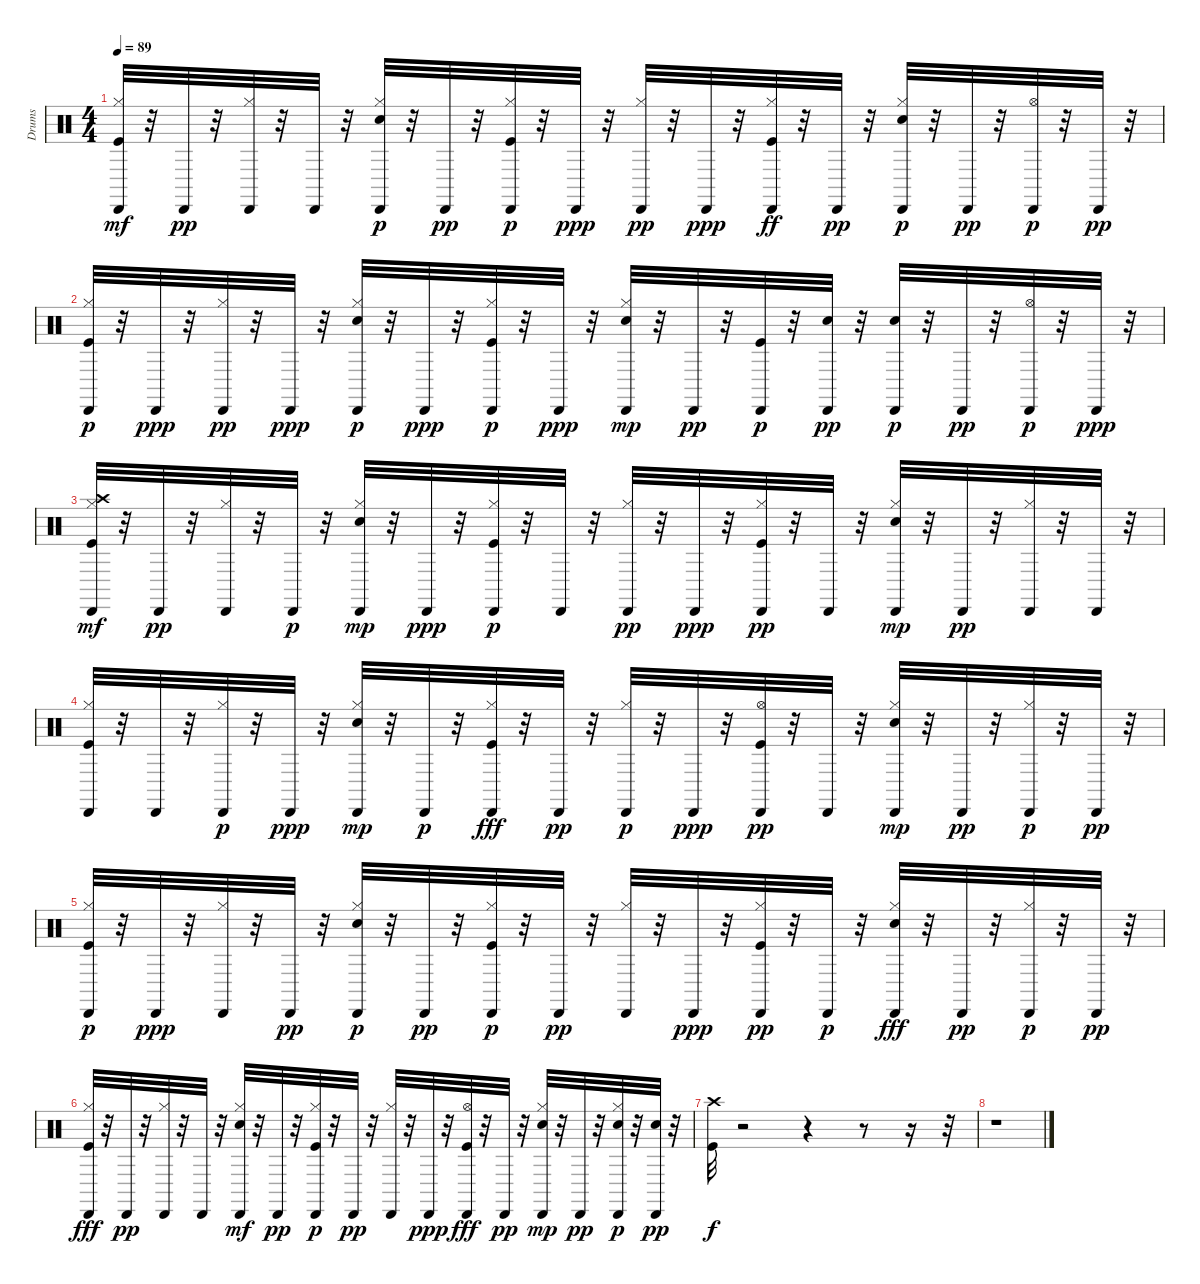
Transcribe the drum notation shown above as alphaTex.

\track ("Drums" "Drums") {instrument percussion}
\staff {score}
\articulation defaults
\ts (4 4)
\tempo 89
\clef neutral
\ks c
("Kick (hit)" "Cabasa (hit)" "Hi-Hat (closed)").32{dy mf} r.32 "Cabasa (hit)".32{dy pp} r.32 ("Hi-Hat (closed)" "Cabasa (hit)").32 r.32 "Cabasa (hit)".32 r.32 ("Electric Snare (hit)" "Hi-Hat (closed)" "Cabasa (hit)").32{dy p} r.32 "Cabasa (hit)".32{dy pp} r.32 ("Kick (hit)" "Hi-Hat (closed)" "Cabasa (hit)").32{dy p} r.32 "Cabasa (hit)".32{dy ppp} r.32 ("Hi-Hat (closed)" "Cabasa (hit)").32{dy pp} r.32 "Cabasa (hit)".32{dy ppp} r.32 ("Cabasa (hit)" "Hi-Hat (closed)" "Kick (hit)").32{dy ff} r.32 "Cabasa (hit)".32{dy pp} r.32 ("Electric Snare (hit)" "Hi-Hat (closed)" "Cabasa (hit)").32{dy p} r.32 "Cabasa (hit)".32{dy pp} r.32 ("Hi-Hat (open)" "Cabasa (hit)").32{dy p} r.32 "Cabasa (hit)".32{dy pp} r.32 |
("Kick (hit)" "Hi-Hat (closed)" "Cabasa (hit)").32{dy p} r.32 "Cabasa (hit)".32{dy ppp} r.32 ("Hi-Hat (closed)" "Cabasa (hit)").32{dy pp} r.32 "Cabasa (hit)".32{dy ppp} r.32 ("Hi-Hat (closed)" "Electric Snare (hit)" "Cabasa (hit)").32{dy p} r.32 "Cabasa (hit)".32{dy ppp} r.32 ("Kick (hit)" "Hi-Hat (closed)" "Cabasa (hit)").32{dy p} r.32 "Cabasa (hit)".32{dy ppp} r.32 ("Electric Snare (hit)" "Cabasa (hit)" "Hi-Hat (closed)").32{dy mp} r.32 "Cabasa (hit)".32{dy pp} r.32 ("Kick (hit)" "Cabasa (hit)").32{dy p} r.32 ("Electric Snare (hit)" "Cabasa (hit)").32{dy pp} r.32 ("Electric Snare (hit)" "Cabasa (hit)").32{dy p} r.32 "Cabasa (hit)".32{dy pp} r.32 ("Hi-Hat (open)" "Cabasa (hit)").32{dy p} r.32 "Cabasa (hit)".32{dy ppp} r.32 |
("Hi-Hat (closed)" "Cabasa (hit)" "Kick (hit)" "Crash high (hit)").32{dy mf} r.32 "Cabasa (hit)".32{dy pp} r.32 ("Hi-Hat (closed)" "Cabasa (hit)").32 r.32 "Cabasa (hit)".32{dy p} r.32 ("Electric Snare (hit)" "Hi-Hat (closed)" "Cabasa (hit)").32{dy mp} r.32 "Cabasa (hit)".32{dy ppp} r.32 ("Hi-Hat (closed)" "Kick (hit)" "Cabasa (hit)").32{dy p} r.32 "Cabasa (hit)".32 r.32 ("Hi-Hat (closed)" "Cabasa (hit)").32{dy pp} r.32 "Cabasa (hit)".32{dy ppp} r.32 ("Kick (hit)" "Hi-Hat (closed)" "Cabasa (hit)").32{dy pp} r.32 "Cabasa (hit)".32 r.32 ("Electric Snare (hit)" "Hi-Hat (closed)" "Cabasa (hit)").32{dy mp} r.32 "Cabasa (hit)".32{dy pp} r.32 ("Hi-Hat (closed)" "Cabasa (hit)").32 r.32 "Cabasa (hit)".32 r.32 |
("Kick (hit)" "Hi-Hat (closed)" "Cabasa (hit)").32 r.32 "Cabasa (hit)".32 r.32 ("Hi-Hat (closed)" "Cabasa (hit)").32{dy p} r.32 "Cabasa (hit)".32{dy ppp} r.32 ("Electric Snare (hit)" "Hi-Hat (closed)" "Cabasa (hit)").32{dy mp} r.32 "Cabasa (hit)".32{dy p} r.32 ("Hi-Hat (closed)" "Cabasa (hit)" "Kick (hit)").32{dy fff} r.32 "Cabasa (hit)".32{dy pp} r.32 ("Hi-Hat (closed)" "Cabasa (hit)").32{dy p} r.32 "Cabasa (hit)".32{dy ppp} r.32 ("Hi-Hat (open)" "Kick (hit)" "Cabasa (hit)").32{dy pp} r.32 "Cabasa (hit)".32 r.32 ("Hi-Hat (closed)" "Electric Snare (hit)" "Cabasa (hit)").32{dy mp} r.32 "Cabasa (hit)".32{dy pp} r.32 ("Hi-Hat (closed)" "Cabasa (hit)").32{dy p} r.32 "Cabasa (hit)".32{dy pp} r.32 |
("Hi-Hat (closed)" "Kick (hit)" "Cabasa (hit)").32{dy p} r.32 "Cabasa (hit)".32{dy ppp} r.32 ("Hi-Hat (closed)" "Cabasa (hit)").32 r.32 "Cabasa (hit)".32{dy pp} r.32 ("Electric Snare (hit)" "Hi-Hat (closed)" "Cabasa (hit)").32{dy p} r.32 "Cabasa (hit)".32{dy pp} r.32 ("Hi-Hat (closed)" "Kick (hit)" "Cabasa (hit)").32{dy p} r.32 "Cabasa (hit)".32{dy pp} r.32 ("Hi-Hat (closed)" "Cabasa (hit)").32 r.32 "Cabasa (hit)".32{dy ppp} r.32 ("Hi-Hat (closed)" "Kick (hit)" "Cabasa (hit)").32{dy pp} r.32 "Cabasa (hit)".32{dy p} r.32 ("Hi-Hat (closed)" "Cabasa (hit)" "Electric Snare (hit)").32{dy fff} r.32 "Cabasa (hit)".32{dy pp} r.32 ("Hi-Hat (closed)" "Cabasa (hit)").32{dy p} r.32 "Cabasa (hit)".32{dy pp} r.32 |
("Hi-Hat (closed)" "Cabasa (hit)" "Kick (hit)").32{dy fff} r.32 "Cabasa (hit)".32{dy pp} r.32 ("Hi-Hat (closed)" "Cabasa (hit)").32 r.32 "Cabasa (hit)".32 r.32 ("Electric Snare (hit)" "Cabasa (hit)" "Hi-Hat (closed)").32{dy mf} r.32 "Cabasa (hit)".32{dy pp} r.32 ("Hi-Hat (closed)" "Kick (hit)" "Cabasa (hit)").32{dy p} r.32 "Cabasa (hit)".32{dy pp} r.32 ("Hi-Hat (closed)" "Cabasa (hit)").32 r.32 "Cabasa (hit)".32{dy ppp} r.32 ("Hi-Hat (open)" "Cabasa (hit)" "Kick (hit)").32{dy fff} r.32 "Cabasa (hit)".32{dy pp} r.32 ("Electric Snare (hit)" "Hi-Hat (closed)" "Cabasa (hit)").32{dy mp} r.32 "Cabasa (hit)".32{dy pp} r.32 ("Hi-Hat (closed)" "Electric Snare (hit)" "Cabasa (hit)").32{dy p} r.32 ("Electric Snare (hit)" "Cabasa (hit)").32{dy pp} r.32 |
("Crash high (hit)" "Kick (hit)").32{dy f} r.2 r.4 r.8 r.16 r.32 |
r.1
